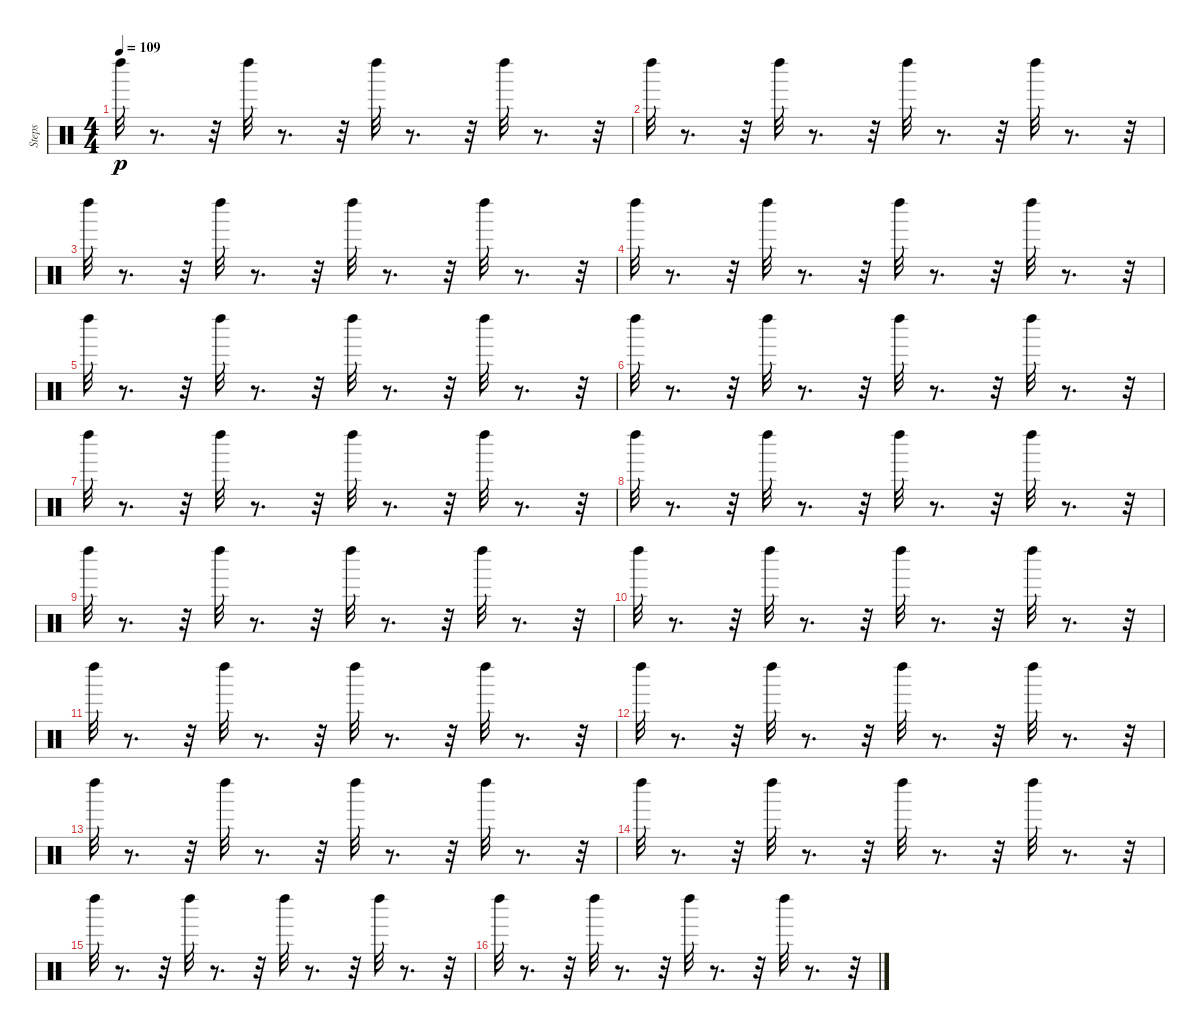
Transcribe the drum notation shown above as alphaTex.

\track ("Steps" "Steps") {instrument percussion}
\staff {score}
\articulation defaults
\ts (4 4)
\tempo 109
\clef neutral
\ks c "Left Maraca (hit)".32{dy p}
r.8{d} r.32 "Left Maraca (hit)".32{volume 5} r.8{d} r.32 "Left Maraca (hit)".32{volume 6} r.8{d} r.32 "Left Maraca (hit)".32{volume 6} r.8{d} r.32 |
"Left Maraca (hit)".32{volume 6} r.8{d} r.32 "Left Maraca (hit)".32{volume 7} r.8{d} r.32 "Left Maraca (hit)".32{volume 7} r.8{d} r.32 "Left Maraca (hit)".32{volume 8} r.8{d} r.32 |
"Left Maraca (hit)".32{volume 8} r.8{d} r.32 "Left Maraca (hit)".32{volume 8} r.8{d} r.32 "Left Maraca (hit)".32{volume 9} r.8{d} r.32 "Left Maraca (hit)".32{volume 9} r.8{d} r.32 |
"Left Maraca (hit)".32{volume 10} r.8{d} r.32 "Left Maraca (hit)".32{volume 10} r.8{d} r.32 "Left Maraca (hit)".32{volume 10} r.8{d} r.32 "Left Maraca (hit)".32{volume 11} r.8{d} r.32 |
"Left Maraca (hit)".32{volume 11} r.8{d} r.32 "Left Maraca (hit)".32{volume 12} r.8{d} r.32 "Left Maraca (hit)".32{volume 12} r.8{d} r.32 "Left Maraca (hit)".32{volume 12} r.8{d} r.32 |
"Left Maraca (hit)".32{volume 13} r.8{d} r.32 "Left Maraca (hit)".32{volume 13} r.8{d} r.32 "Left Maraca (hit)".32{volume 14} r.8{d} r.32 "Left Maraca (hit)".32{volume 14} r.8{d} r.32 |
"Left Maraca (hit)".32{volume 14} r.8{d} r.32 "Left Maraca (hit)".32{volume 15} r.8{d} r.32 "Left Maraca (hit)".32{volume 15} r.8{d} r.32 "Left Maraca (hit)".32{volume 15} r.8{d} r.32 |
"Left Maraca (hit)".32{volume 16} r.8{d} r.32 "Left Maraca (hit)".32 r.8{d} r.32 "Left Maraca (hit)".32 r.8{d} r.32 "Left Maraca (hit)".32 r.8{d} r.32 |
"Left Maraca (hit)".32 r.8{d} r.32 "Left Maraca (hit)".32 r.8{d} r.32 "Left Maraca (hit)".32 r.8{d} r.32 "Left Maraca (hit)".32 r.8{d} r.32 |
"Left Maraca (hit)".32 r.8{d} r.32 "Left Maraca (hit)".32 r.8{d} r.32 "Left Maraca (hit)".32 r.8{d} r.32 "Left Maraca (hit)".32 r.8{d} r.32 |
"Left Maraca (hit)".32 r.8{d} r.32 "Left Maraca (hit)".32 r.8{d} r.32 "Left Maraca (hit)".32 r.8{d} r.32 "Left Maraca (hit)".32 r.8{d} r.32 |
"Left Maraca (hit)".32 r.8{d} r.32 "Left Maraca (hit)".32 r.8{d} r.32 "Left Maraca (hit)".32 r.8{d} r.32 "Left Maraca (hit)".32 r.8{d} r.32 |
"Left Maraca (hit)".32 r.8{d} r.32 "Left Maraca (hit)".32 r.8{d} r.32 "Left Maraca (hit)".32 r.8{d} r.32 "Left Maraca (hit)".32 r.8{d} r.32 |
"Left Maraca (hit)".32 r.8{d} r.32 "Left Maraca (hit)".32 r.8{d} r.32 "Left Maraca (hit)".32 r.8{d} r.32 "Left Maraca (hit)".32 r.8{d} r.32 |
"Left Maraca (hit)".32 r.8{d} r.32 "Left Maraca (hit)".32 r.8{d} r.32 "Left Maraca (hit)".32 r.8{d} r.32 "Left Maraca (hit)".32 r.8{d} r.32 |
"Left Maraca (hit)".32 r.8{d} r.32 "Left Maraca (hit)".32 r.8{d} r.32 "Left Maraca (hit)".32 r.8{d} r.32 "Left Maraca (hit)".32 r.8{d} r.32
